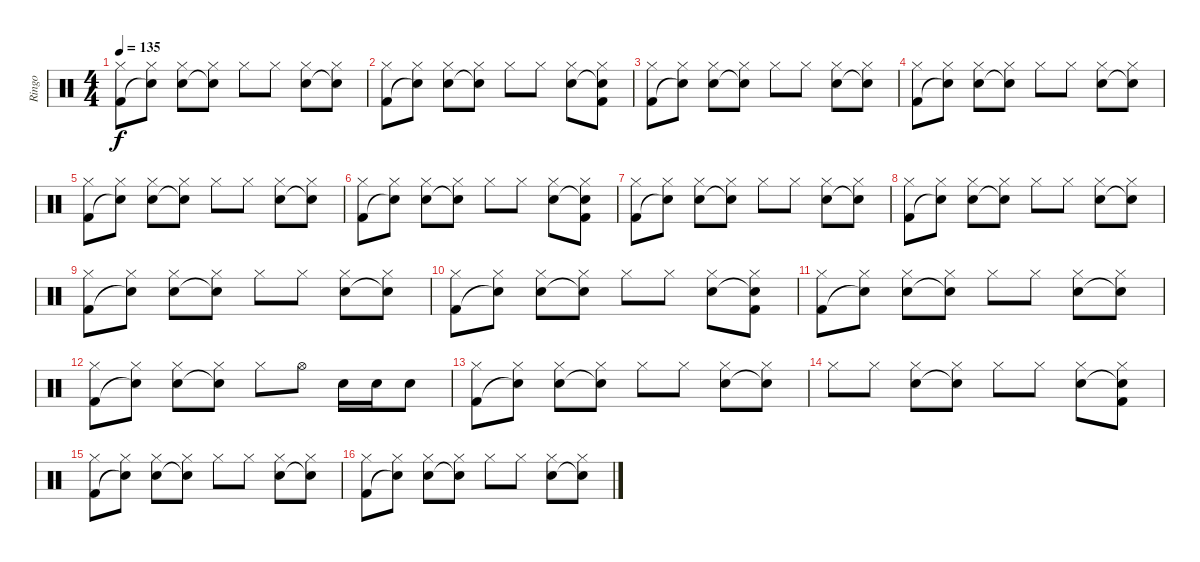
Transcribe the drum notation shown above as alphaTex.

\track ("Ringo" "Ringo") {instrument percussion}
\staff {score}
\articulation defaults
\ts (4 4)
\tempo 135
\clef neutral
\ks c
("Hi-Hat (closed)" "Kick (hit) 2").8{dy f} ("Hi-Hat (closed)" "Snare (hit)"{t}).8 ("Hi-Hat (closed)" "Snare (hit) 2").8 ("Hi-Hat (closed)" "Snare (hit)"{t}).8 "Hi-Hat (closed)".8 "Hi-Hat (closed)".8 ("Hi-Hat (closed)" "Snare (hit) 2").8 ("Hi-Hat (closed)" "Snare (hit)"{t}).8 |
("Hi-Hat (closed)" "Kick (hit) 2").8 ("Hi-Hat (closed)" "Snare (hit)"{t}).8 ("Hi-Hat (closed)" "Snare (hit) 2").8 ("Hi-Hat (closed)" "Snare (hit)"{t}).8 "Hi-Hat (closed)".8 "Hi-Hat (closed)".8 ("Hi-Hat (closed)" "Snare (hit) 2").8 ("Hi-Hat (closed)" "Snare (hit)"{t} "Kick (hit) 2").8 |
("Hi-Hat (closed)" "Kick (hit) 2").8 ("Hi-Hat (closed)" "Snare (hit)"{t}).8 ("Hi-Hat (closed)" "Snare (hit) 2").8 ("Hi-Hat (closed)" "Snare (hit)"{t}).8 "Hi-Hat (closed)".8 "Hi-Hat (closed)".8 ("Hi-Hat (closed)" "Snare (hit) 2").8 ("Hi-Hat (closed)" "Snare (hit)"{t}).8 |
("Hi-Hat (closed)" "Kick (hit) 2").8 ("Hi-Hat (closed)" "Snare (hit)"{t}).8 ("Hi-Hat (closed)" "Snare (hit) 2").8 ("Hi-Hat (closed)" "Snare (hit)"{t}).8 "Hi-Hat (closed)".8 "Hi-Hat (closed)".8 ("Hi-Hat (closed)" "Snare (hit) 2").8 ("Hi-Hat (closed)" "Snare (hit)"{t}).8 |
("Hi-Hat (closed)" "Kick (hit) 2").8 ("Hi-Hat (closed)" "Snare (hit)"{t}).8 ("Hi-Hat (closed)" "Snare (hit) 2").8 ("Hi-Hat (closed)" "Snare (hit)"{t}).8 "Hi-Hat (closed)".8 "Hi-Hat (closed)".8 ("Hi-Hat (closed)" "Snare (hit) 2").8 ("Hi-Hat (closed)" "Snare (hit)"{t}).8 |
("Hi-Hat (closed)" "Kick (hit) 2").8 ("Hi-Hat (closed)" "Snare (hit)"{t}).8 ("Hi-Hat (closed)" "Snare (hit) 2").8 ("Hi-Hat (closed)" "Snare (hit)"{t}).8 "Hi-Hat (closed)".8 "Hi-Hat (closed)".8 ("Hi-Hat (closed)" "Snare (hit) 2").8 ("Hi-Hat (closed)" "Snare (hit)"{t} "Kick (hit) 2").8 |
("Hi-Hat (closed)" "Kick (hit) 2").8 ("Hi-Hat (closed)" "Snare (hit)"{t}).8 ("Hi-Hat (closed)" "Snare (hit) 2").8 ("Hi-Hat (closed)" "Snare (hit)"{t}).8 "Hi-Hat (closed)".8 "Hi-Hat (closed)".8 ("Hi-Hat (closed)" "Snare (hit) 2").8 ("Hi-Hat (closed)" "Snare (hit)"{t}).8 |
("Hi-Hat (closed)" "Kick (hit) 2").8 ("Hi-Hat (closed)" "Snare (hit)"{t}).8 ("Hi-Hat (closed)" "Snare (hit) 2").8 ("Hi-Hat (closed)" "Snare (hit)"{t}).8 "Hi-Hat (closed)".8 "Hi-Hat (closed)".8 ("Hi-Hat (closed)" "Snare (hit) 2").8 ("Hi-Hat (closed)" "Snare (hit)"{t}).8 |
("Hi-Hat (closed)" "Kick (hit) 2").8 ("Hi-Hat (closed)" "Snare (hit)"{t}).8 ("Hi-Hat (closed)" "Snare (hit) 2").8 ("Hi-Hat (closed)" "Snare (hit)"{t}).8 "Hi-Hat (closed)".8 "Hi-Hat (closed)".8 ("Hi-Hat (closed)" "Snare (hit) 2").8 ("Hi-Hat (closed)" "Snare (hit)"{t}).8 |
("Hi-Hat (closed)" "Kick (hit) 2").8 ("Hi-Hat (closed)" "Snare (hit)"{t}).8 ("Hi-Hat (closed)" "Snare (hit) 2").8 ("Hi-Hat (closed)" "Snare (hit)"{t}).8 "Hi-Hat (closed)".8 "Hi-Hat (closed)".8 ("Hi-Hat (closed)" "Snare (hit) 2").8 ("Hi-Hat (closed)" "Snare (hit)"{t} "Kick (hit) 2").8 |
("Hi-Hat (closed)" "Kick (hit) 2").8 ("Hi-Hat (closed)" "Snare (hit)"{t}).8 ("Hi-Hat (closed)" "Snare (hit) 2").8 ("Hi-Hat (closed)" "Snare (hit)"{t}).8 "Hi-Hat (closed)".8 "Hi-Hat (closed)".8 ("Hi-Hat (closed)" "Snare (hit) 2").8 ("Hi-Hat (closed)" "Snare (hit)"{t}).8 |
("Hi-Hat (closed)" "Kick (hit) 2").8 ("Hi-Hat (closed)" "Snare (hit)"{t}).8 ("Hi-Hat (closed)" "Snare (hit) 2").8 ("Hi-Hat (closed)" "Snare (hit)"{t}).8 "Hi-Hat (closed)".8 "Hi-Hat (open)".8 "Snare (hit) 2".16 "Snare (hit) 2".16 "Snare (hit) 2".8 |
("Hi-Hat (closed)" "Kick (hit) 2").8 ("Hi-Hat (closed)" "Snare (hit)"{t}).8 ("Hi-Hat (closed)" "Snare (hit) 2").8 ("Hi-Hat (closed)" "Snare (hit)"{t}).8 "Hi-Hat (closed)".8 "Hi-Hat (closed)".8 ("Hi-Hat (closed)" "Snare (hit) 2").8 ("Hi-Hat (closed)" "Snare (hit)"{t}).8 |
"Hi-Hat (closed)".8 "Hi-Hat (closed)".8 ("Hi-Hat (closed)" "Snare (hit) 2").8 ("Hi-Hat (closed)" "Snare (hit)"{t}).8 "Hi-Hat (closed)".8 "Hi-Hat (closed)".8 ("Hi-Hat (closed)" "Snare (hit) 2").8 ("Hi-Hat (closed)" "Snare (hit)"{t} "Kick (hit) 2").8 |
("Hi-Hat (closed)" "Kick (hit) 2").8 ("Hi-Hat (closed)" "Snare (hit)"{t}).8 ("Hi-Hat (closed)" "Snare (hit) 2").8 ("Hi-Hat (closed)" "Snare (hit)"{t}).8 "Hi-Hat (closed)".8 "Hi-Hat (closed)".8 ("Hi-Hat (closed)" "Snare (hit) 2").8 ("Hi-Hat (closed)" "Snare (hit)"{t}).8 |
("Hi-Hat (closed)" "Kick (hit) 2").8 ("Hi-Hat (closed)" "Snare (hit)"{t}).8 ("Hi-Hat (closed)" "Snare (hit) 2").8 ("Hi-Hat (closed)" "Snare (hit)"{t}).8 "Hi-Hat (closed)".8 "Hi-Hat (closed)".8 ("Hi-Hat (closed)" "Snare (hit) 2").8 ("Hi-Hat (closed)" "Snare (hit)"{t}).8
